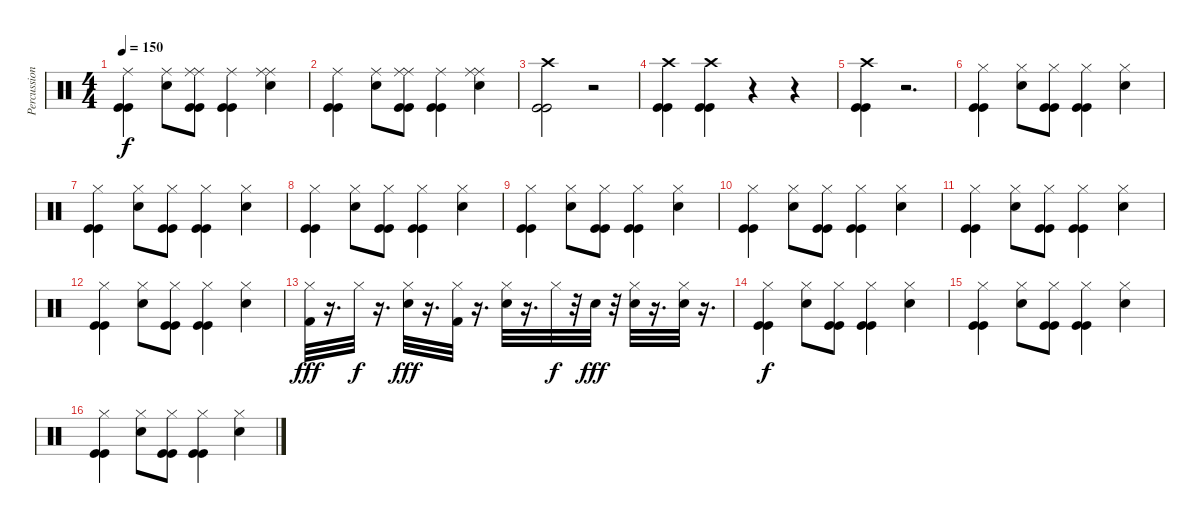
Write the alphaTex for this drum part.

\track ("Percussion" "Percussion") {instrument percussion}
\staff {score}
\articulation defaults
\ts (4 4)
\tempo 150
\clef neutral
\ks c
("Kick (hit)" "Kick (hit)" "Ride (middle)").4{dy f} ("Electric Snare (hit)" "Ride (middle)").8 ("Kick (hit)" "Kick (hit)" "Ride (middle)" "Ride (middle)").8 ("Kick (hit)" "Kick (hit)" "Ride (middle)").4 ("Electric Snare (hit)" "Ride (middle)" "Ride (middle)").4 |
("Kick (hit)" "Kick (hit)" "Ride (middle)").4 ("Electric Snare (hit)" "Ride (middle)").8 ("Kick (hit)" "Kick (hit)" "Ride (middle)" "Ride (middle)").8 ("Kick (hit)" "Kick (hit)" "Ride (middle)").4 ("Electric Snare (hit)" "Ride (middle)" "Ride (middle)").4 |
("Crash high (hit)" "Kick (hit)" "Kick (hit)").2 r.2 |
("Crash high (hit)" "Kick (hit)" "Kick (hit)").4 ("Crash high (hit)" "Kick (hit)" "Kick (hit)").4 r.4 r.4 |
("Crash high (hit)" "Kick (hit)" "Kick (hit)").4 r.2{d} |
("Kick (hit)" "Kick (hit)" "Hi-Hat (closed)").4 ("Electric Snare (hit)" "Hi-Hat (closed)").8 ("Kick (hit)" "Kick (hit)" "Hi-Hat (closed)").8 ("Kick (hit)" "Kick (hit)" "Hi-Hat (closed)").4 ("Electric Snare (hit)" "Hi-Hat (closed)").4 |
("Kick (hit)" "Kick (hit)" "Hi-Hat (closed)").4 ("Electric Snare (hit)" "Hi-Hat (closed)").8 ("Kick (hit)" "Kick (hit)" "Hi-Hat (closed)").8 ("Kick (hit)" "Kick (hit)" "Hi-Hat (closed)").4 ("Electric Snare (hit)" "Hi-Hat (closed)").4 |
("Kick (hit)" "Kick (hit)" "Hi-Hat (closed)").4 ("Electric Snare (hit)" "Hi-Hat (closed)").8 ("Kick (hit)" "Kick (hit)" "Hi-Hat (closed)").8 ("Kick (hit)" "Kick (hit)" "Hi-Hat (closed)").4 ("Electric Snare (hit)" "Hi-Hat (closed)").4 |
("Kick (hit)" "Kick (hit)" "Hi-Hat (closed)").4 ("Electric Snare (hit)" "Hi-Hat (closed)").8 ("Kick (hit)" "Kick (hit)" "Hi-Hat (closed)").8 ("Kick (hit)" "Kick (hit)" "Hi-Hat (closed)").4 ("Electric Snare (hit)" "Hi-Hat (closed)").4 |
("Kick (hit)" "Kick (hit)" "Hi-Hat (closed)").4 ("Electric Snare (hit)" "Hi-Hat (closed)").8 ("Kick (hit)" "Kick (hit)" "Hi-Hat (closed)").8 ("Kick (hit)" "Kick (hit)" "Hi-Hat (closed)").4 ("Electric Snare (hit)" "Hi-Hat (closed)").4 |
("Kick (hit)" "Kick (hit)" "Hi-Hat (closed)").4 ("Electric Snare (hit)" "Hi-Hat (closed)").8 ("Kick (hit)" "Kick (hit)" "Hi-Hat (closed)").8 ("Kick (hit)" "Kick (hit)" "Hi-Hat (closed)").4 ("Electric Snare (hit)" "Hi-Hat (closed)").4 |
("Kick (hit)" "Kick (hit)" "Hi-Hat (closed)").4 ("Electric Snare (hit)" "Hi-Hat (closed)").8 ("Kick (hit)" "Kick (hit)" "Hi-Hat (closed)").8 ("Kick (hit)" "Kick (hit)" "Hi-Hat (closed)").4 ("Electric Snare (hit)" "Hi-Hat (closed)").4 |
("Kick (hit) 2" "Hi-Hat (closed)").32{dy fff} r.16{d} "Hi-Hat (closed)".32{dy f} r.16{d} ("Hi-Hat (closed)" "Electric Snare (hit)").32{dy fff} r.16{d} ("Kick (hit) 2" "Hi-Hat (closed)").32 r.16{d} ("Electric Snare (hit)" "Hi-Hat (closed)").32 r.16{d} "Hi-Hat (closed)".32{dy f} r.32 "Electric Snare (hit)".32{dy fff} r.32 ("Hi-Hat (closed)" "Electric Snare (hit)").32 r.16{d} ("Hi-Hat (closed)" "Electric Snare (hit)").32 r.16{d} |
("Kick (hit)" "Kick (hit)" "Hi-Hat (closed)").4{dy f} ("Electric Snare (hit)" "Hi-Hat (closed)").8 ("Kick (hit)" "Kick (hit)" "Hi-Hat (closed)").8 ("Kick (hit)" "Kick (hit)" "Hi-Hat (closed)").4 ("Electric Snare (hit)" "Hi-Hat (closed)").4 |
("Kick (hit)" "Kick (hit)" "Hi-Hat (closed)").4 ("Electric Snare (hit)" "Hi-Hat (closed)").8 ("Kick (hit)" "Kick (hit)" "Hi-Hat (closed)").8 ("Kick (hit)" "Kick (hit)" "Hi-Hat (closed)").4 ("Electric Snare (hit)" "Hi-Hat (closed)").4 |
("Kick (hit)" "Kick (hit)" "Hi-Hat (closed)").4 ("Electric Snare (hit)" "Hi-Hat (closed)").8 ("Kick (hit)" "Kick (hit)" "Hi-Hat (closed)").8 ("Kick (hit)" "Kick (hit)" "Hi-Hat (closed)").4 ("Electric Snare (hit)" "Hi-Hat (closed)").4
